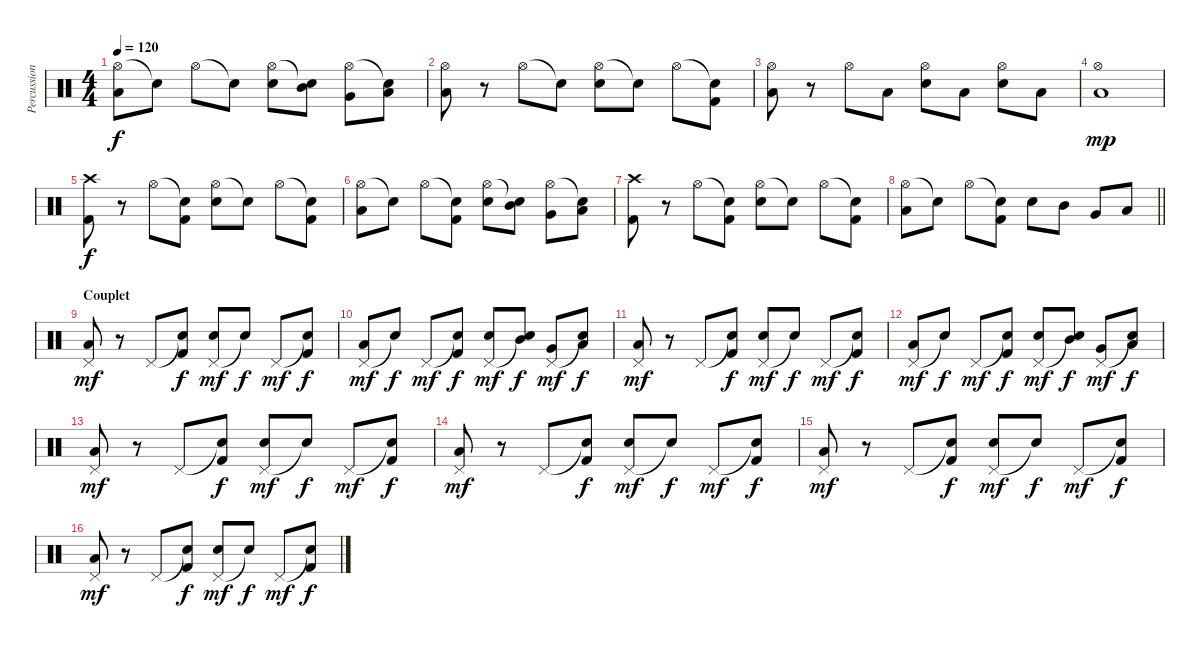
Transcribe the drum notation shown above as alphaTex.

\track ("Percussions" "Percussion") {instrument percussion}
\staff {score}
\articulation defaults
\ts (4 4)
\tempo 120
\clef neutral
\ks c
("Hi-Hat (open)" "Low Tom (hit)").8{dy f} "Snare (hit)"{t}.8 "Hi-Hat (open)".8 "Snare (hit)"{t}.8 ("Hi-Hat (open)" "Snare (hit) 2").8 ("Snare (hit)"{t} "Mid Tom (hit)").8 ("Hi-Hat (open)" "Very Low Tom (hit)").8 ("Snare (hit)"{t} "Low Floor Tom (hit)").8 |
("Hi-Hat (open)" "Low Tom (hit)").8 r.8 "Hi-Hat (open)".8 "Snare (hit)"{t}.8 ("Hi-Hat (open)" "Snare (hit) 2").8 "Snare (hit)"{t}.8 "Hi-Hat (open)".8 ("Snare (hit)"{t} "Kick (hit) 2").8 |
("Hi-Hat (open)" "Low Tom (hit)").8 r.8 "Hi-Hat (open)".8 "Low Tom (hit)".8 ("Hi-Hat (open)" "Snare (hit) 2").8 "Low Floor Tom (hit)".8 ("Hi-Hat (open)" "Snare (hit) 2").8 "Low Floor Tom (hit)".8 |
("Low Tom (hit)" "Hi-Hat (open)").1{dy mp} |
("Kick (hit) 2" "Crash high (hit)").8{dy f} r.8 "Hi-Hat (open)".8 ("Snare (hit)"{t} "Kick (hit) 2").8 ("Hi-Hat (open)" "Snare (hit) 2").8 "Snare (hit)"{t}.8 "Hi-Hat (open)".8 ("Snare (hit)"{t} "Kick (hit) 2").8 |
("Hi-Hat (open)" "Low Tom (hit)").8 "Snare (hit)"{t}.8 "Hi-Hat (open)".8 ("Snare (hit)"{t} "Kick (hit) 2").8 ("Hi-Hat (open)" "Snare (hit) 2").8 ("Snare (hit)"{t} "Mid Tom (hit)").8 ("Hi-Hat (open)" "Very Low Tom (hit)").8 ("Snare (hit)"{t} "Low Floor Tom (hit)").8 |
("Kick (hit) 2" "Crash high (hit)").8 r.8 "Hi-Hat (open)".8 ("Snare (hit)"{t} "Kick (hit) 2").8 ("Hi-Hat (open)" "Snare (hit) 2").8 "Snare (hit)"{t}.8 "Hi-Hat (open)".8 ("Snare (hit)"{t} "Kick (hit) 2").8 |
\barLineRight lightlight
("Hi-Hat (open)" "Low Tom (hit)").8 "Snare (hit)"{t}.8 "Hi-Hat (open)".8 ("Snare (hit)"{t} "Kick (hit) 2").8 "Snare (hit) 2".8 "Mid Tom (hit)".8 "Very Low Tom (hit)".8 "Low Floor Tom (hit)".8 |
\section ("" "Couplet")
("Pedal Hi-Hat (hit)" "Low Tom (hit)").8{dy mf volume 4} r.8 "Pedal Hi-Hat (hit)".8 ("Snare (hit)"{t} "Kick (hit) 2").8{dy f} ("Pedal Hi-Hat (hit)" "Snare (hit) 2").8{dy mf} "Snare (hit)"{t}.8{dy f} "Pedal Hi-Hat (hit)".8{dy mf} ("Snare (hit)"{t} "Kick (hit) 2").8{dy f} |
("Pedal Hi-Hat (hit)" "Low Tom (hit)").8{dy mf} "Snare (hit)"{t}.8{dy f} "Pedal Hi-Hat (hit)".8{dy mf} ("Snare (hit)"{t} "Kick (hit) 2").8{dy f} ("Pedal Hi-Hat (hit)" "Snare (hit) 2").8{dy mf} ("Snare (hit)"{t} "Mid Tom (hit)").8{dy f} ("Pedal Hi-Hat (hit)" "Very Low Tom (hit)").8{dy mf} ("Snare (hit)"{t} "Low Floor Tom (hit)").8{dy f} |
("Pedal Hi-Hat (hit)" "Low Tom (hit)").8{dy mf} r.8 "Pedal Hi-Hat (hit)".8 ("Snare (hit)"{t} "Kick (hit) 2").8{dy f} ("Pedal Hi-Hat (hit)" "Snare (hit) 2").8{dy mf} "Snare (hit)"{t}.8{dy f} "Pedal Hi-Hat (hit)".8{dy mf} ("Snare (hit)"{t} "Kick (hit) 2").8{dy f} |
("Pedal Hi-Hat (hit)" "Low Tom (hit)").8{dy mf} "Snare (hit)"{t}.8{dy f} "Pedal Hi-Hat (hit)".8{dy mf} ("Snare (hit)"{t} "Kick (hit) 2").8{dy f} ("Pedal Hi-Hat (hit)" "Snare (hit) 2").8{dy mf} ("Snare (hit)"{t} "Mid Tom (hit)").8{dy f} ("Pedal Hi-Hat (hit)" "Very Low Tom (hit)").8{dy mf} ("Snare (hit)"{t} "Low Floor Tom (hit)").8{dy f} |
("Pedal Hi-Hat (hit)" "Low Tom (hit)").8{dy mf} r.8 "Pedal Hi-Hat (hit)".8 ("Snare (hit)"{t} "Kick (hit) 2").8{dy f} ("Pedal Hi-Hat (hit)" "Snare (hit) 2").8{dy mf} "Snare (hit)"{t}.8{dy f} "Pedal Hi-Hat (hit)".8{dy mf} ("Snare (hit)"{t} "Kick (hit) 2").8{dy f} |
("Pedal Hi-Hat (hit)" "Low Tom (hit)").8{dy mf} r.8 "Pedal Hi-Hat (hit)".8 ("Snare (hit)"{t} "Kick (hit) 2").8{dy f} ("Pedal Hi-Hat (hit)" "Snare (hit) 2").8{dy mf} "Snare (hit)"{t}.8{dy f} "Pedal Hi-Hat (hit)".8{dy mf} ("Snare (hit)"{t} "Kick (hit) 2").8{dy f} |
("Pedal Hi-Hat (hit)" "Low Tom (hit)").8{dy mf} r.8 "Pedal Hi-Hat (hit)".8 ("Snare (hit)"{t} "Kick (hit) 2").8{dy f} ("Pedal Hi-Hat (hit)" "Snare (hit) 2").8{dy mf} "Snare (hit)"{t}.8{dy f} "Pedal Hi-Hat (hit)".8{dy mf} ("Snare (hit)"{t} "Kick (hit) 2").8{dy f} |
("Pedal Hi-Hat (hit)" "Low Tom (hit)").8{dy mf} r.8 "Pedal Hi-Hat (hit)".8 ("Snare (hit)"{t} "Kick (hit) 2").8{dy f} ("Pedal Hi-Hat (hit)" "Snare (hit) 2").8{dy mf} "Snare (hit)"{t}.8{dy f} "Pedal Hi-Hat (hit)".8{dy mf} ("Snare (hit)"{t} "Kick (hit) 2").8{dy f}
